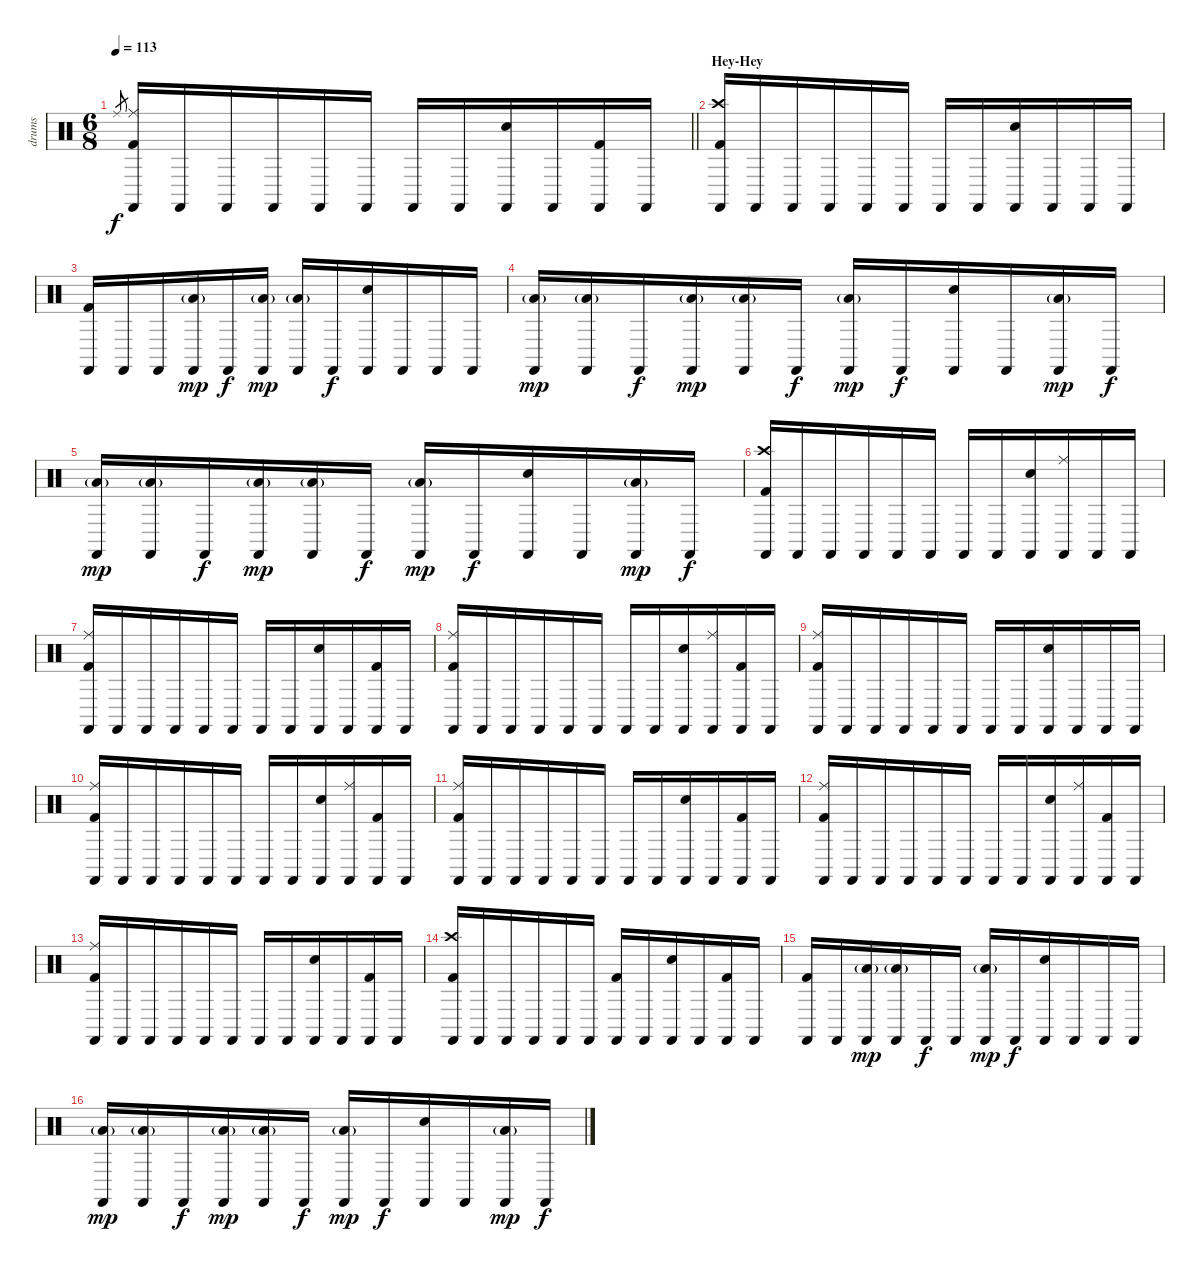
\track ("drums" "drums") {instrument percussion}
\staff {score}
\articulation defaults
\ts (6 8)
\tempo 113
\clef neutral
\barLineRight lightlight
\ks c "Ride (middle)".8{gr dy f}
("Ride (middle)" "Kick (hit) 2" "Castanets (hit)").16 "Castanets (hit)".16 "Castanets (hit)".16 "Castanets (hit)".16 "Castanets (hit)".16 "Castanets (hit)".16 "Castanets (hit)".16 "Castanets (hit)".16 ("Electric Snare (hit)" "Castanets (hit)").16 "Castanets (hit)".16 ("Kick (hit) 2" "Castanets (hit)").16 "Castanets (hit)".16 |
\section ("" "Hey-Hey")
("Crash high (hit)" "Kick (hit) 2" "Castanets (hit)").16 "Castanets (hit)".16 "Castanets (hit)".16 "Castanets (hit)".16 "Castanets (hit)".16 "Castanets (hit)".16 "Castanets (hit)".16 "Castanets (hit)".16 ("Electric Snare (hit)" "Castanets (hit)").16 "Castanets (hit)".16 "Castanets (hit)".16 "Castanets (hit)".16 |
("Kick (hit) 2" "Castanets (hit)").16 "Castanets (hit)".16 "Castanets (hit)".16 ("Low Tom (hit)"{g} "Castanets (hit)").16{dy mp} "Castanets (hit)".16{dy f} ("Low Tom (hit)"{g} "Castanets (hit)").16{dy mp} ("Low Tom (hit)"{g} "Castanets (hit)").16 "Castanets (hit)".16{dy f} ("Electric Snare (hit)" "Castanets (hit)").16 "Castanets (hit)".16 "Castanets (hit)".16 "Castanets (hit)".16 |
("Low Tom (hit)"{g} "Castanets (hit)").16{dy mp} ("Low Tom (hit)"{g} "Castanets (hit)").16 "Castanets (hit)".16{dy f} ("Low Tom (hit)"{g} "Castanets (hit)").16{dy mp} ("Low Tom (hit)"{g} "Castanets (hit)").16 "Castanets (hit)".16{dy f} ("Low Tom (hit)"{g} "Castanets (hit)").16{dy mp} "Castanets (hit)".16{dy f} ("Electric Snare (hit)" "Castanets (hit)").16 "Castanets (hit)".16 ("Low Tom (hit)"{g} "Castanets (hit)").16{dy mp} "Castanets (hit)".16{dy f} |
("Low Tom (hit)"{g} "Castanets (hit)").16{dy mp} ("Low Tom (hit)"{g} "Castanets (hit)").16 "Castanets (hit)".16{dy f} ("Low Tom (hit)"{g} "Castanets (hit)").16{dy mp} ("Low Tom (hit)"{g} "Castanets (hit)").16 "Castanets (hit)".16{dy f} ("Low Tom (hit)"{g} "Castanets (hit)").16{dy mp} "Castanets (hit)".16{dy f} ("Electric Snare (hit)" "Castanets (hit)").16 "Castanets (hit)".16 ("Low Tom (hit)"{g} "Castanets (hit)").16{dy mp} "Castanets (hit)".16{dy f} |
("Crash high (hit)" "Kick (hit) 2" "Castanets (hit)").16 "Castanets (hit)".16 "Castanets (hit)".16 "Castanets (hit)".16 "Castanets (hit)".16 "Castanets (hit)".16 "Castanets (hit)".16 "Castanets (hit)".16 ("Electric Snare (hit)" "Castanets (hit)").16 ("Ride (middle)" "Castanets (hit)").16 "Castanets (hit)".16 "Castanets (hit)".16 |
("Kick (hit) 2" "Ride (middle)" "Castanets (hit)").16 "Castanets (hit)".16 "Castanets (hit)".16 "Castanets (hit)".16 "Castanets (hit)".16 "Castanets (hit)".16 "Castanets (hit)".16 "Castanets (hit)".16 ("Electric Snare (hit)" "Castanets (hit)").16 "Castanets (hit)".16 ("Kick (hit) 2" "Castanets (hit)").16 "Castanets (hit)".16 |
("Kick (hit) 2" "Ride (middle)" "Castanets (hit)").16 "Castanets (hit)".16 "Castanets (hit)".16 "Castanets (hit)".16 "Castanets (hit)".16 "Castanets (hit)".16 "Castanets (hit)".16 "Castanets (hit)".16 ("Electric Snare (hit)" "Castanets (hit)").16 ("Ride (middle)" "Castanets (hit)").16 ("Kick (hit) 2" "Castanets (hit)").16 "Castanets (hit)".16 |
("Kick (hit) 2" "Ride (middle)" "Castanets (hit)").16 "Castanets (hit)".16 "Castanets (hit)".16 "Castanets (hit)".16 "Castanets (hit)".16 "Castanets (hit)".16 "Castanets (hit)".16 "Castanets (hit)".16 ("Electric Snare (hit)" "Castanets (hit)").16 "Castanets (hit)".16 "Castanets (hit)".16 "Castanets (hit)".16 |
("Kick (hit) 2" "Ride (middle)" "Castanets (hit)").16 "Castanets (hit)".16 "Castanets (hit)".16 "Castanets (hit)".16 "Castanets (hit)".16 "Castanets (hit)".16 "Castanets (hit)".16 "Castanets (hit)".16 ("Electric Snare (hit)" "Castanets (hit)").16 ("Ride (middle)" "Castanets (hit)").16 ("Kick (hit) 2" "Castanets (hit)").16 "Castanets (hit)".16 |
("Kick (hit) 2" "Ride (middle)" "Castanets (hit)").16 "Castanets (hit)".16 "Castanets (hit)".16 "Castanets (hit)".16 "Castanets (hit)".16 "Castanets (hit)".16 "Castanets (hit)".16 "Castanets (hit)".16 ("Electric Snare (hit)" "Castanets (hit)").16 "Castanets (hit)".16 ("Kick (hit) 2" "Castanets (hit)").16 "Castanets (hit)".16 |
("Kick (hit) 2" "Ride (middle)" "Castanets (hit)").16 "Castanets (hit)".16 "Castanets (hit)".16 "Castanets (hit)".16 "Castanets (hit)".16 "Castanets (hit)".16 "Castanets (hit)".16 "Castanets (hit)".16 ("Electric Snare (hit)" "Castanets (hit)").16 ("Ride (middle)" "Castanets (hit)").16 ("Kick (hit) 2" "Castanets (hit)").16 "Castanets (hit)".16 |
("Kick (hit) 2" "Ride (middle)" "Castanets (hit)").16 "Castanets (hit)".16 "Castanets (hit)".16 "Castanets (hit)".16 "Castanets (hit)".16 "Castanets (hit)".16 "Castanets (hit)".16 "Castanets (hit)".16 ("Electric Snare (hit)" "Castanets (hit)").16 "Castanets (hit)".16 ("Kick (hit) 2" "Castanets (hit)").16 "Castanets (hit)".16 |
("Crash high (hit)" "Kick (hit) 2" "Castanets (hit)").16 "Castanets (hit)".16 "Castanets (hit)".16 "Castanets (hit)".16 "Castanets (hit)".16 "Castanets (hit)".16 ("Kick (hit) 2" "Castanets (hit)").16 "Castanets (hit)".16 ("Electric Snare (hit)" "Castanets (hit)").16 "Castanets (hit)".16 ("Kick (hit) 2" "Castanets (hit)").16 "Castanets (hit)".16 |
("Kick (hit) 2" "Castanets (hit)").16 "Castanets (hit)".16 ("Low Tom (hit)"{g} "Castanets (hit)").16{dy mp} ("Low Tom (hit)"{g} "Castanets (hit)").16 "Castanets (hit)".16{dy f} "Castanets (hit)".16 ("Low Tom (hit)"{g} "Castanets (hit)").16{dy mp} "Castanets (hit)".16{dy f} ("Electric Snare (hit)" "Castanets (hit)").16 "Castanets (hit)".16 "Castanets (hit)".16 "Castanets (hit)".16 |
("Low Tom (hit)"{g} "Castanets (hit)").16{dy mp} ("Low Tom (hit)"{g} "Castanets (hit)").16 "Castanets (hit)".16{dy f} ("Low Tom (hit)"{g} "Castanets (hit)").16{dy mp} ("Low Tom (hit)"{g} "Castanets (hit)").16 "Castanets (hit)".16{dy f} ("Low Tom (hit)"{g} "Castanets (hit)").16{dy mp} "Castanets (hit)".16{dy f} ("Electric Snare (hit)" "Castanets (hit)").16 "Castanets (hit)".16 ("Low Tom (hit)"{g} "Castanets (hit)").16{dy mp} "Castanets (hit)".16{dy f}
